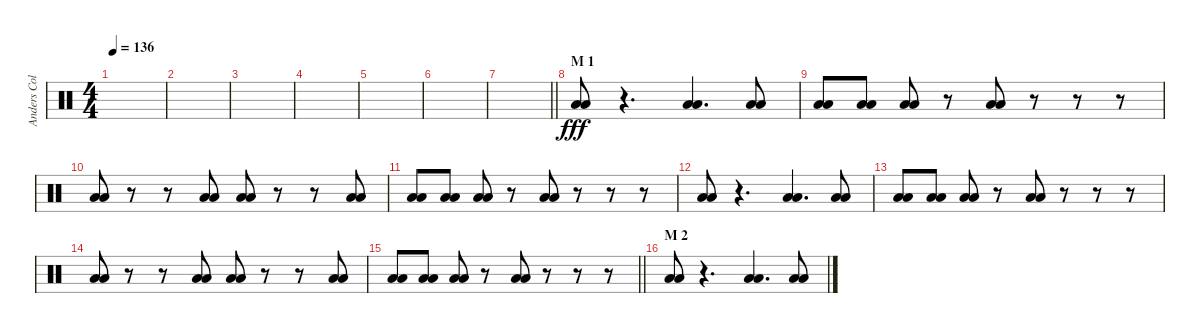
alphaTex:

\track ("Anders Colsefni" "Anders Col") {instrument percussion}
\staff {score}
\articulation defaults
\ts (4 4)
\tempo 136
\clef neutral
\ks c
|
|
|
|
|
|
\barLineRight lightlight
|
\section ("" "M 1")
("Low Floor Tom (hit)" "Low Floor Tom (hit)").8{dy fff} r.4{d} ("Low Floor Tom (hit)" "Low Floor Tom (hit)").4{d} ("Low Floor Tom (hit)" "Low Floor Tom (hit)").8 |
("Low Floor Tom (hit)" "Low Floor Tom (hit)").8 ("Low Floor Tom (hit)" "Low Floor Tom (hit)").8 ("Low Floor Tom (hit)" "Low Floor Tom (hit)").8 r.8 ("Low Floor Tom (hit)" "Low Floor Tom (hit)").8 r.8 r.8 r.8 |
("Low Floor Tom (hit)" "Low Floor Tom (hit)").8 r.8 r.8 ("Low Floor Tom (hit)" "Low Floor Tom (hit)").8 ("Low Floor Tom (hit)" "Low Floor Tom (hit)").8 r.8 r.8 ("Low Floor Tom (hit)" "Low Floor Tom (hit)").8 |
("Low Floor Tom (hit)" "Low Floor Tom (hit)").8 ("Low Floor Tom (hit)" "Low Floor Tom (hit)").8 ("Low Floor Tom (hit)" "Low Floor Tom (hit)").8 r.8 ("Low Floor Tom (hit)" "Low Floor Tom (hit)").8 r.8 r.8 r.8 |
("Low Floor Tom (hit)" "Low Floor Tom (hit)").8 r.4{d} ("Low Floor Tom (hit)" "Low Floor Tom (hit)").4{d} ("Low Floor Tom (hit)" "Low Floor Tom (hit)").8 |
("Low Floor Tom (hit)" "Low Floor Tom (hit)").8 ("Low Floor Tom (hit)" "Low Floor Tom (hit)").8 ("Low Floor Tom (hit)" "Low Floor Tom (hit)").8 r.8 ("Low Floor Tom (hit)" "Low Floor Tom (hit)").8 r.8 r.8 r.8 |
("Low Floor Tom (hit)" "Low Floor Tom (hit)").8 r.8 r.8 ("Low Floor Tom (hit)" "Low Floor Tom (hit)").8 ("Low Floor Tom (hit)" "Low Floor Tom (hit)").8 r.8 r.8 ("Low Floor Tom (hit)" "Low Floor Tom (hit)").8 |
\barLineRight lightlight
("Low Floor Tom (hit)" "Low Floor Tom (hit)").8 ("Low Floor Tom (hit)" "Low Floor Tom (hit)").8 ("Low Floor Tom (hit)" "Low Floor Tom (hit)").8 r.8 ("Low Floor Tom (hit)" "Low Floor Tom (hit)").8 r.8 r.8 r.8 |
\section ("" "M 2")
("Low Floor Tom (hit)" "Low Floor Tom (hit)").8 r.4{d} ("Low Floor Tom (hit)" "Low Floor Tom (hit)").4{d} ("Low Floor Tom (hit)" "Low Floor Tom (hit)").8
